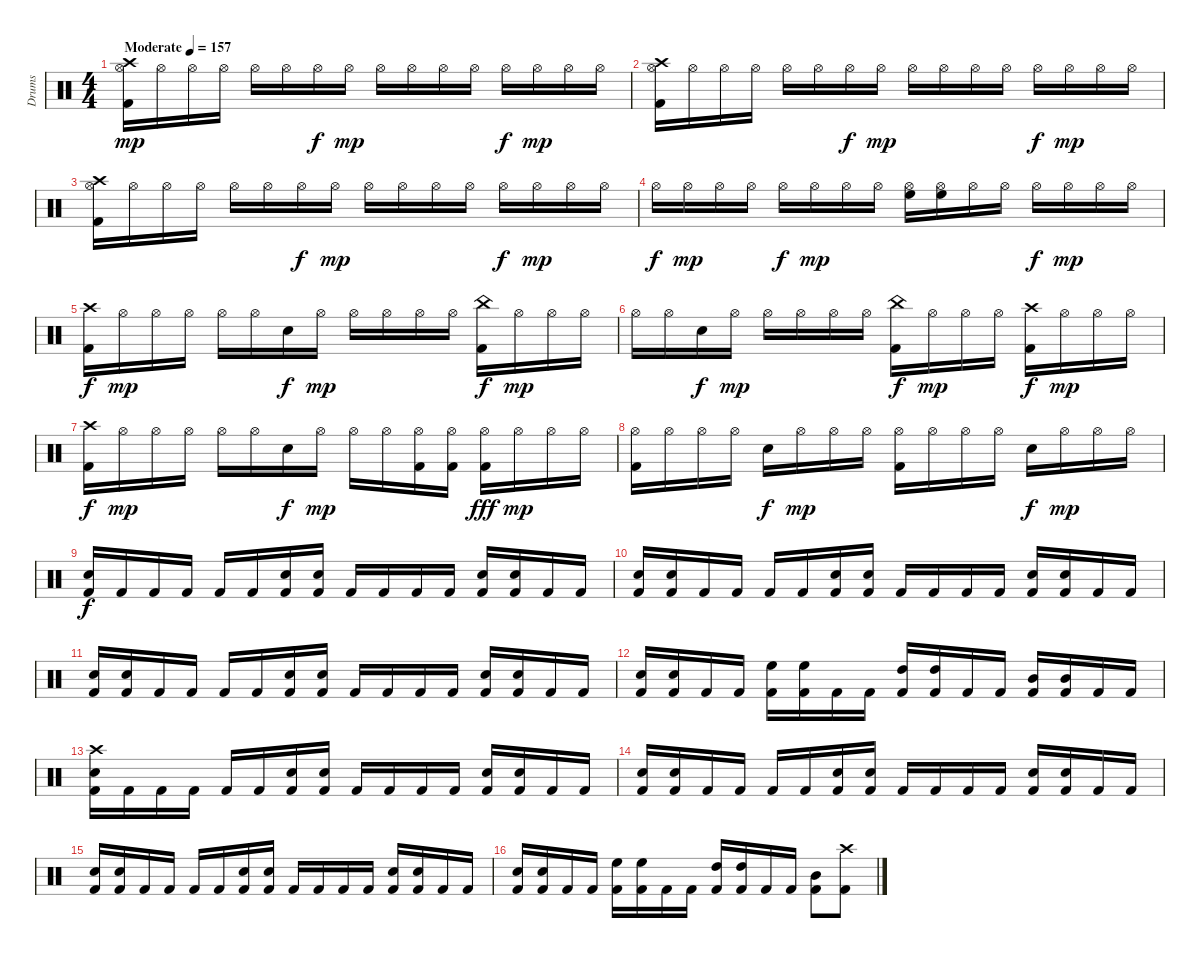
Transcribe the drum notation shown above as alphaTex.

\track ("Drums" "Drums") {instrument percussion}
\staff {score}
\articulation defaults
\ts (4 4)
\tempo (157 "Moderate")
\clef neutral
\ks c
("Crash high (hit)" "Kick (hit) 2" "Hi-Hat (open)").16{dy mp} "Hi-Hat (open)".16 "Hi-Hat (open)".16 "Hi-Hat (open)".16 "Hi-Hat (open)".16 "Hi-Hat (open)".16 "Hi-Hat (open)".16{dy f} "Hi-Hat (open)".16{dy mp} "Hi-Hat (open)".16 "Hi-Hat (open)".16 "Hi-Hat (open)".16 "Hi-Hat (open)".16 "Hi-Hat (open)".16{dy f} "Hi-Hat (open)".16{dy mp} "Hi-Hat (open)".16 "Hi-Hat (open)".16 |
("Crash high (hit)" "Kick (hit) 2" "Hi-Hat (open)").16 "Hi-Hat (open)".16 "Hi-Hat (open)".16 "Hi-Hat (open)".16 "Hi-Hat (open)".16 "Hi-Hat (open)".16 "Hi-Hat (open)".16{dy f} "Hi-Hat (open)".16{dy mp} "Hi-Hat (open)".16 "Hi-Hat (open)".16 "Hi-Hat (open)".16 "Hi-Hat (open)".16 "Hi-Hat (open)".16{dy f} "Hi-Hat (open)".16{dy mp} "Hi-Hat (open)".16 "Hi-Hat (open)".16 |
("Hi-Hat (open)" "Crash high (hit)" "Kick (hit) 2").16 "Hi-Hat (open)".16 "Hi-Hat (open)".16 "Hi-Hat (open)".16 "Hi-Hat (open)".16 "Hi-Hat (open)".16 "Hi-Hat (open)".16{dy f} "Hi-Hat (open)".16{dy mp} "Hi-Hat (open)".16 "Hi-Hat (open)".16 "Hi-Hat (open)".16 "Hi-Hat (open)".16 "Hi-Hat (open)".16{dy f} "Hi-Hat (open)".16{dy mp} "Hi-Hat (open)".16 "Hi-Hat (open)".16 |
"Hi-Hat (open)".16{dy f} "Hi-Hat (open)".16{dy mp} "Hi-Hat (open)".16 "Hi-Hat (open)".16 "Hi-Hat (open)".16{dy f} "Hi-Hat (open)".16{dy mp} "Hi-Hat (open)".16 "Hi-Hat (open)".16 ("Hi-Hat (open)" "High Floor Tom (hit)").16 ("Hi-Hat (open)" "High Floor Tom (hit)").16 "Hi-Hat (open)".16 "Hi-Hat (open)".16 "Hi-Hat (open)".16{dy f} "Hi-Hat (open)".16{dy mp} "Hi-Hat (open)".16 "Hi-Hat (open)".16 |
("Crash high (hit)" "Kick (hit) 2").16{dy f} "Hi-Hat (open)".16{dy mp} "Hi-Hat (open)".16 "Hi-Hat (open)".16 "Hi-Hat (open)".16 "Hi-Hat (open)".16 "Electric Snare (hit)".16{dy f} "Hi-Hat (open)".16{dy mp} "Hi-Hat (open)".16 "Hi-Hat (open)".16 "Hi-Hat (open)".16 "Hi-Hat (open)".16 ("China (hit)" "Kick (hit) 2").16{dy f} "Hi-Hat (open)".16{dy mp} "Hi-Hat (open)".16 "Hi-Hat (open)".16 |
"Hi-Hat (open)".16 "Hi-Hat (open)".16 "Electric Snare (hit)".16{dy f} "Hi-Hat (open)".16{dy mp} "Hi-Hat (open)".16 "Hi-Hat (open)".16 "Hi-Hat (open)".16 "Hi-Hat (open)".16 ("China (hit)" "Kick (hit) 2").16{dy f} "Hi-Hat (open)".16{dy mp} "Hi-Hat (open)".16 "Hi-Hat (open)".16 ("Crash high (hit)" "Kick (hit) 2").16{dy f} "Hi-Hat (open)".16{dy mp} "Hi-Hat (open)".16 "Hi-Hat (open)".16 |
("Kick (hit) 2" "Crash high (hit)").16{dy f} "Hi-Hat (open)".16{dy mp} "Hi-Hat (open)".16 "Hi-Hat (open)".16 "Hi-Hat (open)".16 "Hi-Hat (open)".16 "Electric Snare (hit)".16{dy f} "Hi-Hat (open)".16{dy mp} "Hi-Hat (open)".16 "Hi-Hat (open)".16 ("Kick (hit) 2" "Hi-Hat (open)").16 ("Kick (hit) 2" "Hi-Hat (open)").16 ("Hi-Hat (open)" "Kick (hit) 2").16{dy fff} "Hi-Hat (open)".16{dy mp} "Hi-Hat (open)".16 "Hi-Hat (open)".16 |
("Kick (hit) 2" "Hi-Hat (open)").16 "Hi-Hat (open)".16 "Hi-Hat (open)".16 "Hi-Hat (open)".16 "Electric Snare (hit)".16{dy f} "Hi-Hat (open)".16{dy mp} "Hi-Hat (open)".16 "Hi-Hat (open)".16 ("Kick (hit) 2" "Hi-Hat (open)").16 "Hi-Hat (open)".16 "Hi-Hat (open)".16 "Hi-Hat (open)".16 "Electric Snare (hit)".16{dy f} "Hi-Hat (open)".16{dy mp} "Hi-Hat (open)".16 "Hi-Hat (open)".16 |
("Electric Snare (hit)" "Kick (hit) 2").16{dy f} "Kick (hit) 2".16 "Kick (hit) 2".16 "Kick (hit) 2".16 "Kick (hit) 2".16 "Kick (hit) 2".16 ("Kick (hit) 2" "Electric Snare (hit)").16 ("Kick (hit) 2" "Electric Snare (hit)").16 "Kick (hit) 2".16 "Kick (hit) 2".16 "Kick (hit) 2".16 "Kick (hit) 2".16 ("Kick (hit) 2" "Electric Snare (hit)").16 ("Kick (hit) 2" "Electric Snare (hit)").16 "Kick (hit) 2".16 "Kick (hit) 2".16 |
("Kick (hit) 2" "Electric Snare (hit)").16 ("Kick (hit) 2" "Electric Snare (hit)").16 "Kick (hit) 2".16 "Kick (hit) 2".16 "Kick (hit) 2".16 "Kick (hit) 2".16 ("Kick (hit) 2" "Electric Snare (hit)").16 ("Kick (hit) 2" "Electric Snare (hit)").16 "Kick (hit) 2".16 "Kick (hit) 2".16 "Kick (hit) 2".16 "Kick (hit) 2".16 ("Kick (hit) 2" "Electric Snare (hit)").16 ("Kick (hit) 2" "Electric Snare (hit)").16 "Kick (hit) 2".16 "Kick (hit) 2".16 |
("Kick (hit) 2" "Electric Snare (hit)").16 ("Kick (hit) 2" "Electric Snare (hit)").16 "Kick (hit) 2".16 "Kick (hit) 2".16 "Kick (hit) 2".16 "Kick (hit) 2".16 ("Kick (hit) 2" "Electric Snare (hit)").16 ("Kick (hit) 2" "Electric Snare (hit)").16 "Kick (hit) 2".16 "Kick (hit) 2".16 "Kick (hit) 2".16 "Kick (hit) 2".16 ("Kick (hit) 2" "Electric Snare (hit)").16 ("Kick (hit) 2" "Electric Snare (hit)").16 "Kick (hit) 2".16 "Kick (hit) 2".16 |
("Kick (hit) 2" "Electric Snare (hit)").16 ("Kick (hit) 2" "Electric Snare (hit)").16 "Kick (hit) 2".16 "Kick (hit) 2".16 ("Kick (hit) 2" "High Floor Tom (hit)").16 ("Kick (hit) 2" "High Floor Tom (hit)").16 "Kick (hit) 2".16 "Kick (hit) 2".16 ("Kick (hit) 2" "High Tom (hit)").16 ("Kick (hit) 2" "High Tom (hit)").16 "Kick (hit) 2".16 "Kick (hit) 2".16 ("Kick (hit) 2" "Mid Tom (hit)").16 ("Kick (hit) 2" "Mid Tom (hit)").16 "Kick (hit) 2".16 "Kick (hit) 2".16 |
("Kick (hit) 2" "Crash high (hit)" "Electric Snare (hit)").16 "Kick (hit) 2".16 "Kick (hit) 2".16 "Kick (hit) 2".16 "Kick (hit) 2".16 "Kick (hit) 2".16 ("Kick (hit) 2" "Electric Snare (hit)").16 ("Kick (hit) 2" "Electric Snare (hit)").16 "Kick (hit) 2".16 "Kick (hit) 2".16 "Kick (hit) 2".16 "Kick (hit) 2".16 ("Kick (hit) 2" "Electric Snare (hit)").16 ("Kick (hit) 2" "Electric Snare (hit)").16 "Kick (hit) 2".16 "Kick (hit) 2".16 |
("Kick (hit) 2" "Electric Snare (hit)").16 ("Kick (hit) 2" "Electric Snare (hit)").16 "Kick (hit) 2".16 "Kick (hit) 2".16 "Kick (hit) 2".16 "Kick (hit) 2".16 ("Kick (hit) 2" "Electric Snare (hit)").16 ("Kick (hit) 2" "Electric Snare (hit)").16 "Kick (hit) 2".16 "Kick (hit) 2".16 "Kick (hit) 2".16 "Kick (hit) 2".16 ("Kick (hit) 2" "Electric Snare (hit)").16 ("Kick (hit) 2" "Electric Snare (hit)").16 "Kick (hit) 2".16 "Kick (hit) 2".16 |
("Kick (hit) 2" "Electric Snare (hit)").16 ("Kick (hit) 2" "Electric Snare (hit)").16 "Kick (hit) 2".16 "Kick (hit) 2".16 "Kick (hit) 2".16 "Kick (hit) 2".16 ("Kick (hit) 2" "Electric Snare (hit)").16 ("Kick (hit) 2" "Electric Snare (hit)").16 "Kick (hit) 2".16 "Kick (hit) 2".16 "Kick (hit) 2".16 "Kick (hit) 2".16 ("Kick (hit) 2" "Electric Snare (hit)").16 ("Kick (hit) 2" "Electric Snare (hit)").16 "Kick (hit) 2".16 "Kick (hit) 2".16 |
("Kick (hit) 2" "Electric Snare (hit)").16 ("Kick (hit) 2" "Electric Snare (hit)").16 "Kick (hit) 2".16 "Kick (hit) 2".16 ("Kick (hit) 2" "High Floor Tom (hit)").16 ("Kick (hit) 2" "High Floor Tom (hit)").16 "Kick (hit) 2".16 "Kick (hit) 2".16 ("Kick (hit) 2" "High Tom (hit)").16 ("Kick (hit) 2" "High Tom (hit)").16 "Kick (hit) 2".16 "Kick (hit) 2".16 ("Kick (hit) 2" "Mid Tom (hit)").8 ("Kick (hit) 2" "Crash high (hit)").8
